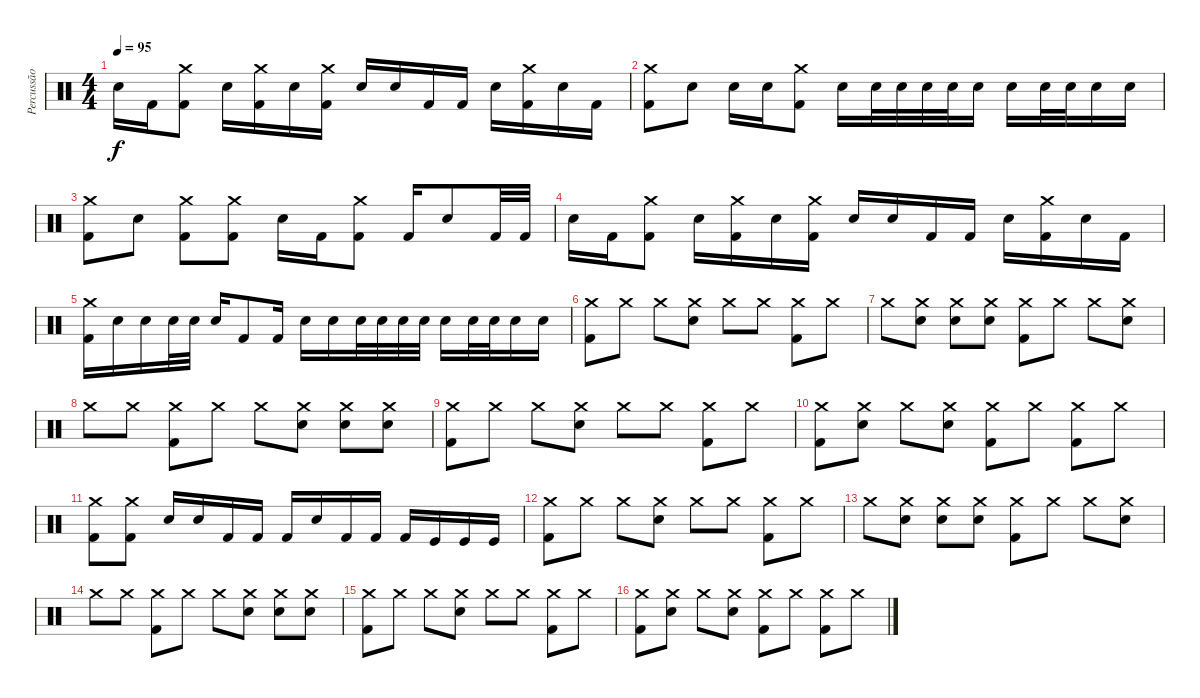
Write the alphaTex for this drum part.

\track ("Percussão" "Percussão") {instrument percussion}
\staff {score}
\articulation defaults
\ts (4 4)
\tempo 95
\clef neutral
\ks c "Electric Snare (hit)".16{dy f} "Kick (hit) 2".16
("Kick (hit) 2" "Crash medium (hit)").8 "Electric Snare (hit)".16 ("Kick (hit) 2" "Crash medium (hit)").16 "Electric Snare (hit)".16 ("Kick (hit) 2" "Crash medium (hit)").16 "Electric Snare (hit)".16 "Electric Snare (hit)".16 "Kick (hit) 2".16 "Kick (hit) 2".16 "Electric Snare (hit)".16 ("Kick (hit) 2" "Crash medium (hit)").16 "Electric Snare (hit)".16 "Kick (hit) 2".16 |
("Kick (hit) 2" "Crash medium (hit)").8 "Electric Snare (hit)".8 "Electric Snare (hit)".16 "Electric Snare (hit)".16 ("Kick (hit) 2" "Crash medium (hit)").8 "Electric Snare (hit)".16 "Electric Snare (hit)".32 "Electric Snare (hit)".32 "Snare (hit) 2".32 "Snare (hit) 2".32 "Electric Snare (hit)".16 "Electric Snare (hit)".16 "Snare (hit) 2".32 "Snare (hit) 2".32 "Snare (hit) 2".16 "Electric Snare (hit)".16 |
("Kick (hit) 2" "Crash medium (hit)").8 "Electric Snare (hit)".8 ("Kick (hit) 2" "Crash medium (hit)").8 ("Kick (hit) 2" "Crash medium (hit)").8 "Electric Snare (hit)".16 "Kick (hit) 2".16 ("Kick (hit) 2" "Crash medium (hit)").8 "Kick (hit) 2".16 "Electric Snare (hit)".8 "Kick (hit) 2".32 "Kick (hit) 2".32 |
"Electric Snare (hit)".16 "Kick (hit) 2".16 ("Kick (hit) 2" "Crash medium (hit)").8 "Electric Snare (hit)".16 ("Kick (hit) 2" "Crash medium (hit)").16 "Electric Snare (hit)".16 ("Kick (hit) 2" "Crash medium (hit)").16 "Electric Snare (hit)".16 "Electric Snare (hit)".16 "Kick (hit) 2".16 "Kick (hit) 2".16 "Electric Snare (hit)".16 ("Kick (hit) 2" "Crash medium (hit)").16 "Electric Snare (hit)".16 "Kick (hit) 2".16 |
("Kick (hit) 2" "Crash medium (hit)").16 "Electric Snare (hit)".16 "Electric Snare (hit)".16 "Snare (hit) 2".32 "Snare (hit) 2".32 "Snare (hit) 2".16 "Kick (hit) 2".8 "Kick (hit) 2".16 "Electric Snare (hit)".16 "Electric Snare (hit)".16 "Snare (hit) 2".32 "Snare (hit) 2".32 "Snare (hit) 2".32 "Snare (hit) 2".32 "Electric Snare (hit)".16 "Snare (hit) 2".32 "Snare (hit) 2".32 "Snare (hit) 2".16 "Electric Snare (hit)".16 |
("Kick (hit) 2" "Crash medium (hit)").8 "Crash medium (hit)".8 "Crash medium (hit)".8 ("Electric Snare (hit)" "Crash medium (hit)").8 "Crash medium (hit)".8 "Crash medium (hit)".8 ("Kick (hit) 2" "Crash medium (hit)").8 "Crash medium (hit)".8 |
"Crash medium (hit)".8 ("Electric Snare (hit)" "Crash medium (hit)").8 ("Electric Snare (hit)" "Crash medium (hit)").8 ("Electric Snare (hit)" "Crash medium (hit)").8 ("Kick (hit) 2" "Crash medium (hit)").8 "Crash medium (hit)".8 "Crash medium (hit)".8 ("Electric Snare (hit)" "Crash medium (hit)").8 |
"Crash medium (hit)".8 "Crash medium (hit)".8 ("Kick (hit) 2" "Crash medium (hit)").8 "Crash medium (hit)".8 "Crash medium (hit)".8 ("Electric Snare (hit)" "Crash medium (hit)").8 ("Electric Snare (hit)" "Crash medium (hit)").8 ("Electric Snare (hit)" "Crash medium (hit)").8 |
("Kick (hit) 2" "Crash medium (hit)").8 "Crash medium (hit)".8 "Crash medium (hit)".8 ("Electric Snare (hit)" "Crash medium (hit)").8 "Crash medium (hit)".8 "Crash medium (hit)".8 ("Kick (hit) 2" "Crash medium (hit)").8 "Crash medium (hit)".8 |
("Kick (hit) 2" "Crash medium (hit)").8 ("Electric Snare (hit)" "Crash medium (hit)").8 "Crash medium (hit)".8 ("Electric Snare (hit)" "Crash medium (hit)").8 ("Kick (hit) 2" "Crash medium (hit)").8 "Crash medium (hit)".8 ("Kick (hit) 2" "Crash medium (hit)").8 "Crash medium (hit)".8 |
("Kick (hit) 2" "Crash medium (hit)").8 ("Kick (hit) 2" "Crash medium (hit)").8 "Electric Snare (hit)".16 "Electric Snare (hit)".16 "Kick (hit) 2".16 "Kick (hit) 2".16 "Kick (hit) 2".16 "Electric Snare (hit)".16 "Kick (hit) 2".16 "Kick (hit) 2".16 "Kick (hit) 2".16 "Kick (hit)".16 "Kick (hit)".16 "Kick (hit)".16 |
("Kick (hit) 2" "Crash medium (hit)").8 "Crash medium (hit)".8 "Crash medium (hit)".8 ("Electric Snare (hit)" "Crash medium (hit)").8 "Crash medium (hit)".8 "Crash medium (hit)".8 ("Kick (hit) 2" "Crash medium (hit)").8 "Crash medium (hit)".8 |
"Crash medium (hit)".8 ("Electric Snare (hit)" "Crash medium (hit)").8 ("Electric Snare (hit)" "Crash medium (hit)").8 ("Electric Snare (hit)" "Crash medium (hit)").8 ("Kick (hit) 2" "Crash medium (hit)").8 "Crash medium (hit)".8 "Crash medium (hit)".8 ("Electric Snare (hit)" "Crash medium (hit)").8 |
"Crash medium (hit)".8 "Crash medium (hit)".8 ("Kick (hit) 2" "Crash medium (hit)").8 "Crash medium (hit)".8 "Crash medium (hit)".8 ("Electric Snare (hit)" "Crash medium (hit)").8 ("Electric Snare (hit)" "Crash medium (hit)").8 ("Electric Snare (hit)" "Crash medium (hit)").8 |
("Kick (hit) 2" "Crash medium (hit)").8 "Crash medium (hit)".8 "Crash medium (hit)".8 ("Electric Snare (hit)" "Crash medium (hit)").8 "Crash medium (hit)".8 "Crash medium (hit)".8 ("Kick (hit) 2" "Crash medium (hit)").8 "Crash medium (hit)".8 |
("Kick (hit) 2" "Crash medium (hit)").8 ("Electric Snare (hit)" "Crash medium (hit)").8 "Crash medium (hit)".8 ("Electric Snare (hit)" "Crash medium (hit)").8 ("Kick (hit) 2" "Crash medium (hit)").8 "Crash medium (hit)".8 ("Kick (hit) 2" "Crash medium (hit)").8 "Crash medium (hit)".8
